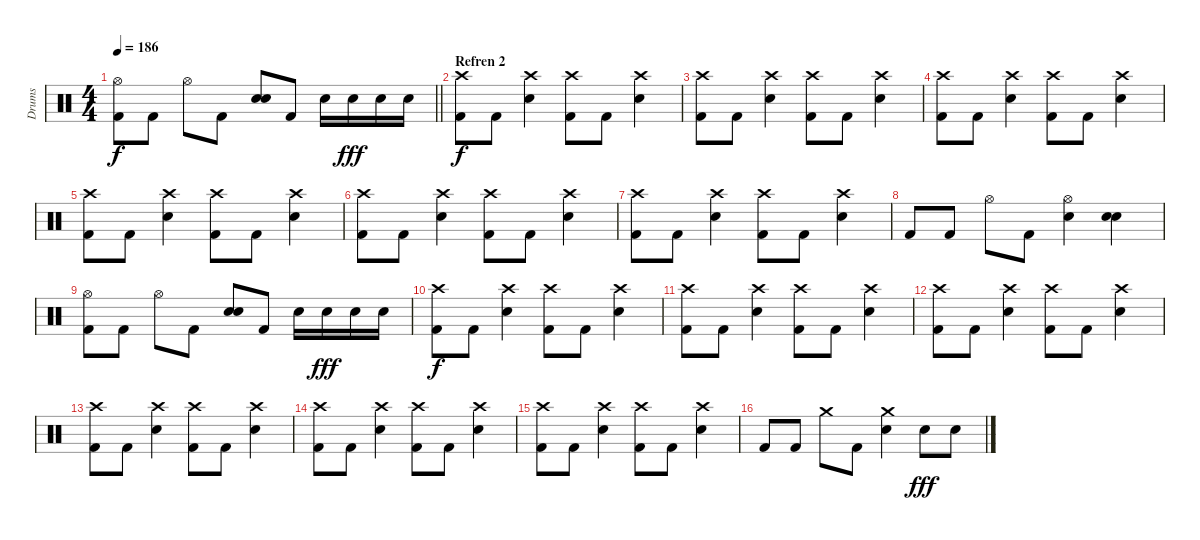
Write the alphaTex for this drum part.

\track ("Drums" "Drums") {instrument percussion}
\staff {score}
\articulation defaults
\ts (4 4)
\tempo 186
\clef neutral
\barLineRight lightlight
\ks c
("Hi-Hat (open)" "Kick (hit) 2").8{dy f} "Kick (hit) 2".8 "Hi-Hat (open)".8 "Kick (hit) 2".8 ("Snare (hit) 2" "Snare (hit) 2").8 "Kick (hit) 2".8 "Snare (hit) 2".16 "Snare (hit) 2".16{dy fff} "Snare (hit) 2".16 "Snare (hit) 2".16 |
\section ("" "Refren 2")
("Crash high (hit)" "Kick (hit) 2").8{dy f} "Kick (hit) 2".8 ("Crash high (hit)" "Snare (hit) 2").4 ("Crash high (hit)" "Kick (hit) 2").8 "Kick (hit) 2".8 ("Crash high (hit)" "Snare (hit) 2").4 |
("Crash high (hit)" "Kick (hit) 2").8 "Kick (hit) 2".8 ("Crash high (hit)" "Snare (hit) 2").4 ("Crash high (hit)" "Kick (hit) 2").8 "Kick (hit) 2".8 ("Crash high (hit)" "Snare (hit) 2").4 |
("Crash high (hit)" "Kick (hit) 2").8 "Kick (hit) 2".8 ("Crash high (hit)" "Snare (hit) 2").4 ("Crash high (hit)" "Kick (hit) 2").8 "Kick (hit) 2".8 ("Crash high (hit)" "Snare (hit) 2").4 |
("Crash high (hit)" "Kick (hit) 2").8 "Kick (hit) 2".8 ("Crash high (hit)" "Snare (hit) 2").4 ("Crash high (hit)" "Kick (hit) 2").8 "Kick (hit) 2".8 ("Crash high (hit)" "Snare (hit) 2").4 |
("Crash high (hit)" "Kick (hit) 2").8 "Kick (hit) 2".8 ("Crash high (hit)" "Snare (hit) 2").4 ("Crash high (hit)" "Kick (hit) 2").8 "Kick (hit) 2".8 ("Crash high (hit)" "Snare (hit) 2").4 |
("Crash high (hit)" "Kick (hit) 2").8 "Kick (hit) 2".8 ("Crash high (hit)" "Snare (hit) 2").4 ("Crash high (hit)" "Kick (hit) 2").8 "Kick (hit) 2".8 ("Crash high (hit)" "Snare (hit) 2").4 |
"Kick (hit) 2".8 "Kick (hit) 2".8 "Hi-Hat (open)".8 "Kick (hit) 2".8 ("Hi-Hat (open)" "Snare (hit) 2").4 ("Snare (hit) 2" "Snare (hit) 2").4 |
("Hi-Hat (open)" "Kick (hit) 2").8 "Kick (hit) 2".8 "Hi-Hat (open)".8 "Kick (hit) 2".8 ("Snare (hit) 2" "Snare (hit) 2").8 "Kick (hit) 2".8 "Snare (hit) 2".16 "Snare (hit) 2".16{dy fff} "Snare (hit) 2".16 "Snare (hit) 2".16 |
("Crash high (hit)" "Kick (hit) 2").8{dy f} "Kick (hit) 2".8 ("Crash high (hit)" "Snare (hit) 2").4 ("Crash high (hit)" "Kick (hit) 2").8 "Kick (hit) 2".8 ("Crash high (hit)" "Snare (hit) 2").4 |
("Crash high (hit)" "Kick (hit) 2").8 "Kick (hit) 2".8 ("Crash high (hit)" "Snare (hit) 2").4 ("Crash high (hit)" "Kick (hit) 2").8 "Kick (hit) 2".8 ("Crash high (hit)" "Snare (hit) 2").4 |
("Crash high (hit)" "Kick (hit) 2").8 "Kick (hit) 2".8 ("Crash high (hit)" "Snare (hit) 2").4 ("Crash high (hit)" "Kick (hit) 2").8 "Kick (hit) 2".8 ("Crash high (hit)" "Snare (hit) 2").4 |
("Crash high (hit)" "Kick (hit) 2").8 "Kick (hit) 2".8 ("Crash high (hit)" "Snare (hit) 2").4 ("Crash high (hit)" "Kick (hit) 2").8 "Kick (hit) 2".8 ("Crash high (hit)" "Snare (hit) 2").4 |
("Crash high (hit)" "Kick (hit) 2").8 "Kick (hit) 2".8 ("Crash high (hit)" "Snare (hit) 2").4 ("Crash high (hit)" "Kick (hit) 2").8 "Kick (hit) 2".8 ("Crash high (hit)" "Snare (hit) 2").4 |
("Crash high (hit)" "Kick (hit) 2").8 "Kick (hit) 2".8 ("Crash high (hit)" "Snare (hit) 2").4 ("Crash high (hit)" "Kick (hit) 2").8 "Kick (hit) 2".8 ("Crash high (hit)" "Snare (hit) 2").4 |
"Kick (hit) 2".8 "Kick (hit) 2".8 "Crash medium (hit)".8 "Kick (hit) 2".8 ("Crash medium (hit)" "Snare (hit) 2").4 "Snare (hit) 2".8{dy fff} "Snare (hit) 2".8
